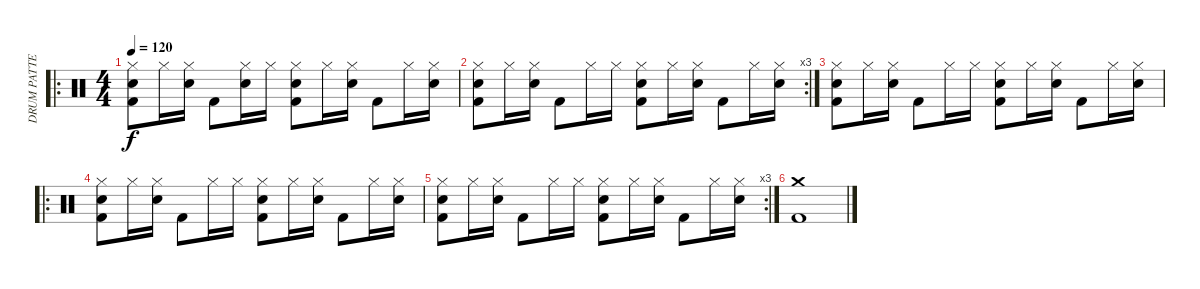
\track ("DRUM PATTERN" "DRUM PATTE") {instrument percussion}
\staff {score}
\articulation defaults
\ro
\ts (4 4)
\tempo 120
\clef neutral
\ks c
("Hi-Hat (closed)" "Electric Snare (hit)" "Kick (hit) 2").8{dy f} "Hi-Hat (closed)".16 ("Hi-Hat (closed)" "Electric Snare (hit)").16 "Kick (hit) 2".8 ("Hi-Hat (closed)" "Electric Snare (hit)").16 "Hi-Hat (closed)".16 ("Hi-Hat (closed)" "Electric Snare (hit)" "Kick (hit) 2").8 "Hi-Hat (closed)".16 ("Hi-Hat (closed)" "Electric Snare (hit)").16 "Kick (hit) 2".8 "Hi-Hat (closed)".16 ("Hi-Hat (closed)" "Electric Snare (hit)").16 |
\rc 3
("Hi-Hat (closed)" "Electric Snare (hit)" "Kick (hit) 2").8 "Hi-Hat (closed)".16 ("Hi-Hat (closed)" "Electric Snare (hit)").16 "Kick (hit) 2".8 "Hi-Hat (closed)".16 "Hi-Hat (closed)".16 ("Hi-Hat (closed)" "Electric Snare (hit)" "Kick (hit) 2").8 "Hi-Hat (closed)".16 ("Hi-Hat (closed)" "Electric Snare (hit)").16 "Kick (hit) 2".8 "Hi-Hat (closed)".16 ("Hi-Hat (closed)" "Electric Snare (hit)").16 |
("Hi-Hat (closed)" "Electric Snare (hit)" "Kick (hit) 2").8 "Hi-Hat (closed)".16 ("Hi-Hat (closed)" "Electric Snare (hit)").16 "Kick (hit) 2".8 "Hi-Hat (closed)".16 "Hi-Hat (closed)".16 ("Hi-Hat (closed)" "Electric Snare (hit)" "Kick (hit) 2").8 "Hi-Hat (closed)".16 ("Hi-Hat (closed)" "Electric Snare (hit)").16 "Kick (hit) 2".8 "Hi-Hat (closed)".16 ("Hi-Hat (closed)" "Electric Snare (hit)").16 |
\ro
("Hi-Hat (closed)" "Electric Snare (hit)" "Kick (hit) 2").8 "Hi-Hat (closed)".16 ("Hi-Hat (closed)" "Electric Snare (hit)").16 "Kick (hit) 2".8 "Hi-Hat (closed)".16 "Hi-Hat (closed)".16 ("Hi-Hat (closed)" "Electric Snare (hit)" "Kick (hit) 2").8 "Hi-Hat (closed)".16 ("Hi-Hat (closed)" "Electric Snare (hit)").16 "Kick (hit) 2".8 "Hi-Hat (closed)".16 ("Hi-Hat (closed)" "Electric Snare (hit)").16 |
\rc 3
("Hi-Hat (closed)" "Electric Snare (hit)" "Kick (hit) 2").8 "Hi-Hat (closed)".16 ("Hi-Hat (closed)" "Electric Snare (hit)").16 "Kick (hit) 2".8 "Hi-Hat (closed)".16 "Hi-Hat (closed)".16 ("Hi-Hat (closed)" "Electric Snare (hit)" "Kick (hit) 2").8 "Hi-Hat (closed)".16 ("Hi-Hat (closed)" "Electric Snare (hit)").16 "Kick (hit) 2".8 "Hi-Hat (closed)".16 ("Hi-Hat (closed)" "Electric Snare (hit)").16 |
("Crash medium (hit)" "Kick (hit) 2").1
